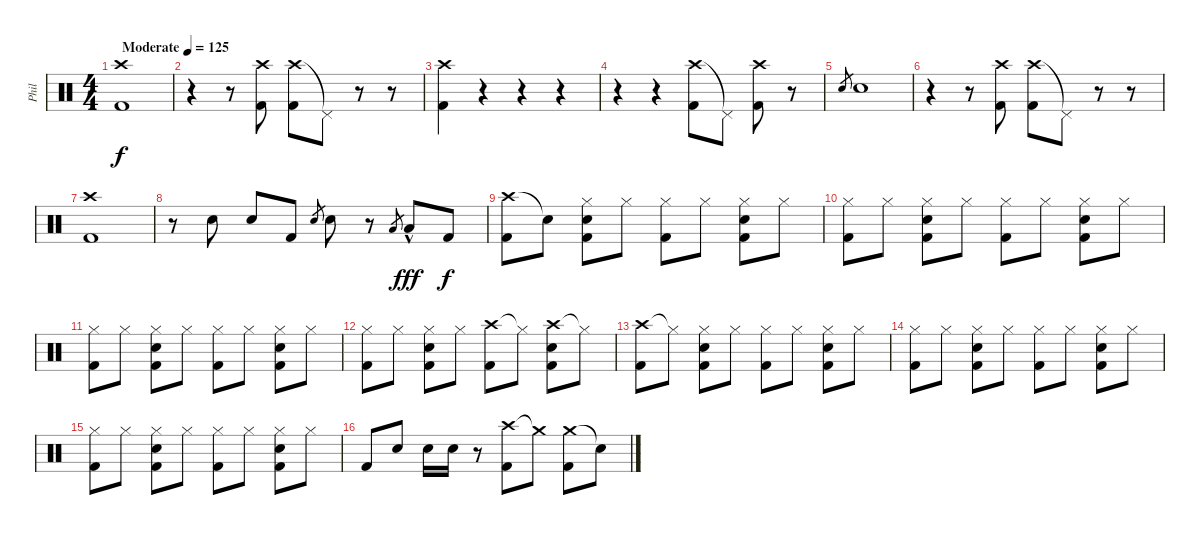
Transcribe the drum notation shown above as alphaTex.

\track ("Phil" "Phil") {instrument percussion}
\staff {score}
\articulation defaults
\ts (4 4)
\tempo (125 "Moderate")
\clef neutral
\ks c
("Crash high (hit)" "Kick (hit) 2").1{dy f} |
r.4 r.8 ("Crash high (hit)" "Kick (hit) 2").8 ("Crash high (hit)" "Kick (hit) 2").8 "Pedal Hi-Hat (hit)"{t}.8 r.8 r.8 |
("Crash high (hit)" "Kick (hit) 2").4 r.4 r.4 r.4 |
r.4 r.4 ("Crash high (hit)" "Kick (hit) 2").8 "Pedal Hi-Hat (hit)"{t}.8 ("Crash high (hit)" "Kick (hit) 2").8 r.8 |
"Snare (hit) 2".8{gr} "Snare (hit) 2".1 |
r.4 r.8 ("Crash high (hit)" "Kick (hit) 2").8 ("Crash high (hit)" "Kick (hit) 2").8 "Pedal Hi-Hat (hit)"{t}.8 r.8 r.8 |
("Crash high (hit)" "Kick (hit) 2").1 |
r.8 "Snare (hit) 2".8 "Snare (hit) 2".8 "Kick (hit) 2".8 "Snare (hit) 2".8{gr} "Snare (hit) 2".8 r.8 "Low Tom (hit)".8{gr} "Low Tom (hit)"{hac}.8{dy fff} "Kick (hit) 2".8{dy f} |
("Crash high (hit)" "Kick (hit) 2").8 "Snare (hit)"{t}.8 ("Hi-Hat (closed)" "Snare (hit) 2" "Kick (hit) 2").8 "Hi-Hat (closed)".8 ("Hi-Hat (closed)" "Kick (hit) 2").8 "Hi-Hat (closed)".8 ("Hi-Hat (closed)" "Snare (hit) 2" "Kick (hit) 2").8 "Hi-Hat (closed)".8 |
("Hi-Hat (closed)" "Kick (hit) 2").8 "Hi-Hat (closed)".8 ("Hi-Hat (closed)" "Snare (hit) 2" "Kick (hit) 2").8 "Hi-Hat (closed)".8 ("Hi-Hat (closed)" "Kick (hit) 2").8 "Hi-Hat (closed)".8 ("Hi-Hat (closed)" "Snare (hit) 2" "Kick (hit) 2").8 "Hi-Hat (closed)".8 |
("Hi-Hat (closed)" "Kick (hit) 2").8 "Hi-Hat (closed)".8 ("Hi-Hat (closed)" "Snare (hit) 2" "Kick (hit) 2").8 "Hi-Hat (closed)".8 ("Hi-Hat (closed)" "Kick (hit) 2").8 "Hi-Hat (closed)".8 ("Hi-Hat (closed)" "Snare (hit) 2" "Kick (hit) 2").8 "Hi-Hat (closed)".8 |
("Hi-Hat (closed)" "Kick (hit) 2").8 "Hi-Hat (closed)".8 ("Hi-Hat (closed)" "Snare (hit) 2" "Kick (hit) 2").8 "Hi-Hat (closed)".8 ("Crash high (hit)" "Kick (hit) 2").8 "Hi-Hat (closed)"{t}.8 ("Crash high (hit)" "Snare (hit) 2" "Kick (hit) 2").8 "Hi-Hat (closed)"{t}.8 |
("Crash high (hit)" "Kick (hit) 2").8 "Hi-Hat (closed)"{t}.8 ("Hi-Hat (closed)" "Snare (hit) 2" "Kick (hit) 2").8 "Hi-Hat (closed)".8 ("Hi-Hat (closed)" "Kick (hit) 2").8 "Hi-Hat (closed)".8 ("Hi-Hat (closed)" "Snare (hit) 2" "Kick (hit) 2").8 "Hi-Hat (closed)".8 |
("Hi-Hat (closed)" "Kick (hit) 2").8 "Hi-Hat (closed)".8 ("Hi-Hat (closed)" "Snare (hit) 2" "Kick (hit) 2").8 "Hi-Hat (closed)".8 ("Hi-Hat (closed)" "Kick (hit) 2").8 "Hi-Hat (closed)".8 ("Hi-Hat (closed)" "Snare (hit) 2" "Kick (hit) 2").8 "Hi-Hat (closed)".8 |
("Hi-Hat (closed)" "Kick (hit) 2").8 "Hi-Hat (closed)".8 ("Hi-Hat (closed)" "Snare (hit) 2" "Kick (hit) 2").8 "Hi-Hat (closed)".8 ("Hi-Hat (closed)" "Kick (hit) 2").8 "Hi-Hat (closed)".8 ("Hi-Hat (closed)" "Snare (hit) 2" "Kick (hit) 2").8 "Hi-Hat (closed)".8 |
"Kick (hit) 2".8 "Snare (hit) 2".8 "Snare (hit) 2".16 "Snare (hit) 2".16 r.8 ("Crash high (hit)" "Kick (hit) 2").8 "Crash medium (hit)"{t}.8 ("Crash medium (hit)" "Kick (hit) 2").8 "Snare (hit)"{t}.8
